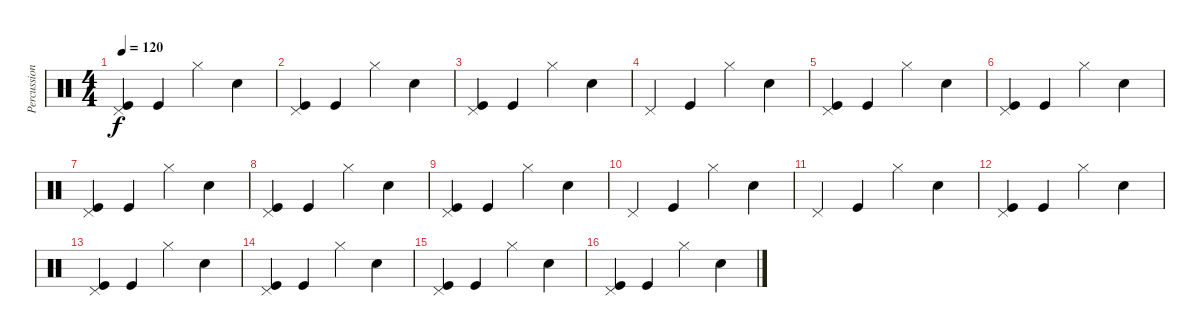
\track ("Percussion" "Percussion") {instrument percussion}
\staff {score}
\articulation defaults
\ts (4 4)
\tempo 120
\clef neutral
\ks c
("Pedal Hi-Hat (hit)" "Kick (hit)").4{dy f} "Kick (hit)".4 "Hi-Hat (closed)".4 "Snare (hit) 2".4 |
("Pedal Hi-Hat (hit)" "Kick (hit)").4 "Kick (hit)".4 "Hi-Hat (closed)".4 "Snare (hit) 2".4 |
("Pedal Hi-Hat (hit)" "Kick (hit)").4 "Kick (hit)".4 "Hi-Hat (closed)".4 "Snare (hit) 2".4 |
"Pedal Hi-Hat (hit)".4 "Kick (hit)".4 "Hi-Hat (closed)".4 "Snare (hit) 2".4 |
("Pedal Hi-Hat (hit)" "Kick (hit)").4 "Kick (hit)".4 "Hi-Hat (closed)".4 "Snare (hit) 2".4 |
("Pedal Hi-Hat (hit)" "Kick (hit)").4 "Kick (hit)".4 "Hi-Hat (closed)".4 "Snare (hit) 2".4 |
("Pedal Hi-Hat (hit)" "Kick (hit)").4 "Kick (hit)".4 "Hi-Hat (closed)".4 "Snare (hit) 2".4 |
("Pedal Hi-Hat (hit)" "Kick (hit)").4 "Kick (hit)".4 "Hi-Hat (closed)".4 "Snare (hit) 2".4 |
("Pedal Hi-Hat (hit)" "Kick (hit)").4 "Kick (hit)".4 "Hi-Hat (closed)".4 "Snare (hit) 2".4 |
"Pedal Hi-Hat (hit)".4 "Kick (hit)".4 "Hi-Hat (closed)".4 "Snare (hit) 2".4 |
"Pedal Hi-Hat (hit)".4 "Kick (hit)".4 "Hi-Hat (closed)".4 "Snare (hit) 2".4 |
("Pedal Hi-Hat (hit)" "Kick (hit)").4 "Kick (hit)".4 "Hi-Hat (closed)".4 "Snare (hit) 2".4 |
("Pedal Hi-Hat (hit)" "Kick (hit)").4 "Kick (hit)".4 "Hi-Hat (closed)".4 "Snare (hit) 2".4 |
("Pedal Hi-Hat (hit)" "Kick (hit)").4 "Kick (hit)".4 "Hi-Hat (closed)".4 "Snare (hit) 2".4 |
("Pedal Hi-Hat (hit)" "Kick (hit)").4 "Kick (hit)".4 "Hi-Hat (closed)".4 "Snare (hit) 2".4 |
("Pedal Hi-Hat (hit)" "Kick (hit)").4 "Kick (hit)".4 "Hi-Hat (closed)".4 "Snare (hit) 2".4
